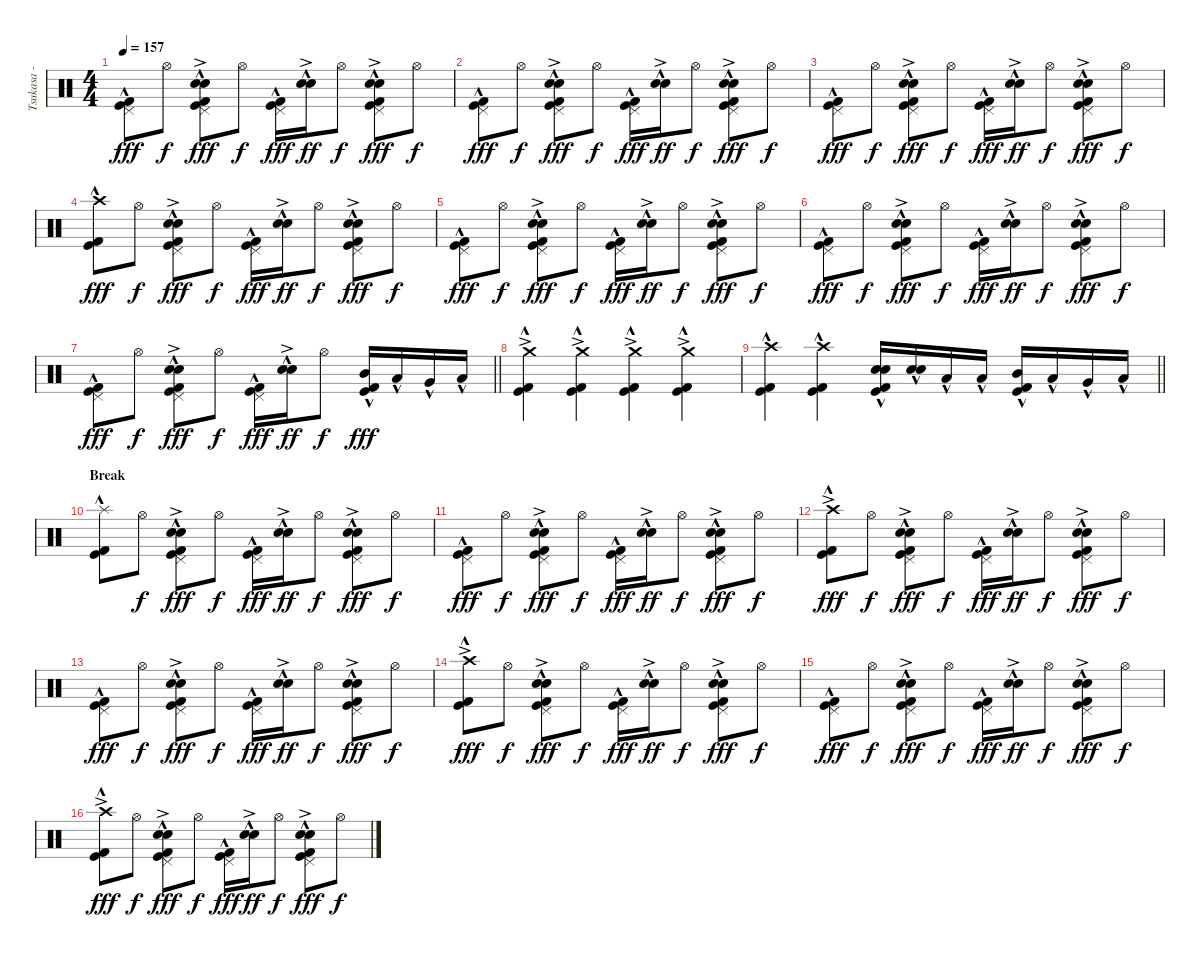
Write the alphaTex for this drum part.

\track ("Tsukasa - Drums" "Tsukasa - ") {instrument percussion}
\staff {score}
\articulation defaults
\ts (4 4)
\tempo 157
\clef neutral
\ks c
("Pedal Hi-Hat (hit)" "Kick (hit) 2"{hac} "Kick (hit)"{hac}).8{dy fff} "Hi-Hat (open)".8{dy f} ("Pedal Hi-Hat (hit)" "Electric Snare (hit)"{hac} "Snare (hit) 2"{ac} "Kick (hit) 2"{hac} "Kick (hit)"{hac}).8{dy fff} "Hi-Hat (open)".8{dy f} ("Pedal Hi-Hat (hit)" "Kick (hit) 2"{hac} "Kick (hit)"{hac}).16{dy fff} ("Electric Snare (hit)"{hac} "Snare (hit) 2"{ac}).16{dy ff} "Hi-Hat (open)".8{dy f} ("Pedal Hi-Hat (hit)" "Electric Snare (hit)"{hac} "Snare (hit) 2"{ac} "Kick (hit) 2"{hac} "Kick (hit)"{hac}).8{dy fff} "Hi-Hat (open)".8{dy f} |
("Pedal Hi-Hat (hit)" "Kick (hit) 2"{hac} "Kick (hit)"{hac}).8{dy fff} "Hi-Hat (open)".8{dy f} ("Pedal Hi-Hat (hit)" "Electric Snare (hit)"{hac} "Snare (hit) 2"{ac} "Kick (hit) 2"{hac} "Kick (hit)"{hac}).8{dy fff} "Hi-Hat (open)".8{dy f} ("Pedal Hi-Hat (hit)" "Kick (hit) 2"{hac} "Kick (hit)"{hac}).16{dy fff} ("Electric Snare (hit)"{hac} "Snare (hit) 2"{ac}).16{dy ff} "Hi-Hat (open)".8{dy f} ("Pedal Hi-Hat (hit)" "Electric Snare (hit)"{hac} "Snare (hit) 2"{ac} "Kick (hit) 2"{hac} "Kick (hit)"{hac}).8{dy fff} "Hi-Hat (open)".8{dy f} |
("Pedal Hi-Hat (hit)" "Kick (hit) 2"{hac} "Kick (hit)"{hac}).8{dy fff} "Hi-Hat (open)".8{dy f} ("Pedal Hi-Hat (hit)" "Electric Snare (hit)"{hac} "Snare (hit) 2"{ac} "Kick (hit) 2"{hac} "Kick (hit)"{hac}).8{dy fff} "Hi-Hat (open)".8{dy f} ("Pedal Hi-Hat (hit)" "Kick (hit) 2"{hac} "Kick (hit)"{hac}).16{dy fff} ("Electric Snare (hit)"{hac} "Snare (hit) 2"{ac}).16{dy ff} "Hi-Hat (open)".8{dy f} ("Pedal Hi-Hat (hit)" "Electric Snare (hit)"{hac} "Snare (hit) 2"{ac} "Kick (hit) 2"{hac} "Kick (hit)"{hac}).8{dy fff} "Hi-Hat (open)".8{dy f} |
("Crash high (hit)"{hac} "Kick (hit) 2"{hac} "Kick (hit)"{hac}).8{dy fff} "Hi-Hat (open)".8{dy f} ("Pedal Hi-Hat (hit)" "Electric Snare (hit)"{hac} "Snare (hit) 2"{ac} "Kick (hit) 2"{hac} "Kick (hit)"{hac}).8{dy fff} "Hi-Hat (open)".8{dy f} ("Pedal Hi-Hat (hit)" "Kick (hit) 2"{hac} "Kick (hit)"{hac}).16{dy fff} ("Electric Snare (hit)"{hac} "Snare (hit) 2"{ac}).16{dy ff} "Hi-Hat (open)".8{dy f} ("Pedal Hi-Hat (hit)" "Electric Snare (hit)"{hac} "Snare (hit) 2"{ac} "Kick (hit) 2"{hac} "Kick (hit)"{hac}).8{dy fff} "Hi-Hat (open)".8{dy f} |
("Pedal Hi-Hat (hit)" "Kick (hit) 2"{hac} "Kick (hit)"{hac}).8{dy fff} "Hi-Hat (open)".8{dy f} ("Pedal Hi-Hat (hit)" "Electric Snare (hit)"{hac} "Snare (hit) 2"{ac} "Kick (hit) 2"{hac} "Kick (hit)"{hac}).8{dy fff} "Hi-Hat (open)".8{dy f} ("Pedal Hi-Hat (hit)" "Kick (hit) 2"{hac} "Kick (hit)"{hac}).16{dy fff} ("Electric Snare (hit)"{hac} "Snare (hit) 2"{ac}).16{dy ff} "Hi-Hat (open)".8{dy f} ("Pedal Hi-Hat (hit)" "Electric Snare (hit)"{hac} "Snare (hit) 2"{ac} "Kick (hit) 2"{hac} "Kick (hit)"{hac}).8{dy fff} "Hi-Hat (open)".8{dy f} |
("Pedal Hi-Hat (hit)" "Kick (hit) 2"{hac} "Kick (hit)"{hac}).8{dy fff} "Hi-Hat (open)".8{dy f} ("Pedal Hi-Hat (hit)" "Electric Snare (hit)"{hac} "Snare (hit) 2"{ac} "Kick (hit) 2"{hac} "Kick (hit)"{hac}).8{dy fff} "Hi-Hat (open)".8{dy f} ("Pedal Hi-Hat (hit)" "Kick (hit) 2"{hac} "Kick (hit)"{hac}).16{dy fff} ("Electric Snare (hit)"{hac} "Snare (hit) 2"{ac}).16{dy ff} "Hi-Hat (open)".8{dy f} ("Pedal Hi-Hat (hit)" "Electric Snare (hit)"{hac} "Snare (hit) 2"{ac} "Kick (hit) 2"{hac} "Kick (hit)"{hac}).8{dy fff} "Hi-Hat (open)".8{dy f} |
\barLineRight lightlight
("Pedal Hi-Hat (hit)" "Kick (hit) 2"{hac} "Kick (hit)"{hac}).8{dy fff} "Hi-Hat (open)".8{dy f} ("Pedal Hi-Hat (hit)" "Electric Snare (hit)"{hac} "Snare (hit) 2"{ac} "Kick (hit) 2"{hac} "Kick (hit)"{hac}).8{dy fff} "Hi-Hat (open)".8{dy f} ("Pedal Hi-Hat (hit)" "Kick (hit) 2"{hac} "Kick (hit)"{hac}).16{dy fff} ("Electric Snare (hit)"{hac} "Snare (hit) 2"{ac}).16{dy ff} "Hi-Hat (open)".8{dy f} ("Mid Tom (hit)"{hac} "Kick (hit) 2"{hac} "Kick (hit)"{hac}).16{dy fff} "Low Tom (hit)"{hac}.16 "Very Low Tom (hit)"{hac}.16 "Low Floor Tom (hit)"{hac}.16 |
("Crash medium (hit)"{ac} "Kick (hit) 2"{hac} "Kick (hit)"{hac}).4 ("Crash medium (hit)"{ac} "Kick (hit) 2"{hac} "Kick (hit)"{hac}).4 ("Crash medium (hit)"{ac} "Kick (hit) 2"{hac} "Kick (hit)"{hac}).4 ("Crash medium (hit)"{ac} "Kick (hit) 2"{hac} "Kick (hit)"{hac}).4 |
\barLineRight lightlight
("Crash high (hit)"{hac} "Kick (hit) 2"{hac} "Kick (hit)"{hac}).4 ("Crash high (hit)"{hac} "Kick (hit) 2"{hac} "Kick (hit)"{hac}).4 ("Electric Snare (hit)"{hac} "Snare (hit) 2"{hac} "Kick (hit) 2"{hac} "Kick (hit)"{hac}).16 ("Electric Snare (hit)"{hac} "Snare (hit) 2"{hac}).16 "Low Tom (hit)"{hac}.16 "Low Tom (hit)"{hac}.16 ("Mid Tom (hit)"{hac} "Kick (hit) 2"{hac} "Kick (hit)"{hac}).16 "Low Tom (hit)"{hac}.16 "Very Low Tom (hit)"{hac}.16 "Low Floor Tom (hit)"{hac}.16 |
\section ("" "Break")
("Splash (hit)"{hac} "Kick (hit) 2"{hac} "Kick (hit)"{hac}).8 "Hi-Hat (open)".8{dy f} ("Pedal Hi-Hat (hit)" "Electric Snare (hit)"{hac} "Snare (hit) 2"{ac} "Kick (hit) 2"{hac} "Kick (hit)"{hac}).8{dy fff} "Hi-Hat (open)".8{dy f} ("Pedal Hi-Hat (hit)" "Kick (hit) 2"{hac} "Kick (hit)"{hac}).16{dy fff} ("Electric Snare (hit)"{hac} "Snare (hit) 2"{ac}).16{dy ff} "Hi-Hat (open)".8{dy f} ("Pedal Hi-Hat (hit)" "Electric Snare (hit)"{hac} "Snare (hit) 2"{ac} "Kick (hit) 2"{hac} "Kick (hit)"{hac}).8{dy fff} "Hi-Hat (open)".8{dy f} |
("Pedal Hi-Hat (hit)" "Kick (hit) 2"{hac} "Kick (hit)"{hac}).8{dy fff} "Hi-Hat (open)".8{dy f} ("Pedal Hi-Hat (hit)" "Electric Snare (hit)"{hac} "Snare (hit) 2"{ac} "Kick (hit) 2"{hac} "Kick (hit)"{hac}).8{dy fff} "Hi-Hat (open)".8{dy f} ("Pedal Hi-Hat (hit)" "Kick (hit) 2"{hac} "Kick (hit)"{hac}).16{dy fff} ("Electric Snare (hit)"{hac} "Snare (hit) 2"{ac}).16{dy ff} "Hi-Hat (open)".8{dy f} ("Pedal Hi-Hat (hit)" "Electric Snare (hit)"{hac} "Snare (hit) 2"{ac} "Kick (hit) 2"{hac} "Kick (hit)"{hac}).8{dy fff} "Hi-Hat (open)".8{dy f} |
("Crash high (hit)"{ac} "Kick (hit) 2"{hac} "Kick (hit)"{hac}).8{dy fff} "Hi-Hat (open)".8{dy f} ("Pedal Hi-Hat (hit)" "Electric Snare (hit)"{hac} "Snare (hit) 2"{ac} "Kick (hit) 2"{hac} "Kick (hit)"{hac}).8{dy fff} "Hi-Hat (open)".8{dy f} ("Pedal Hi-Hat (hit)" "Kick (hit) 2"{hac} "Kick (hit)"{hac}).16{dy fff} ("Electric Snare (hit)"{hac} "Snare (hit) 2"{ac}).16{dy ff} "Hi-Hat (open)".8{dy f} ("Pedal Hi-Hat (hit)" "Electric Snare (hit)"{hac} "Snare (hit) 2"{ac} "Kick (hit) 2"{hac} "Kick (hit)"{hac}).8{dy fff} "Hi-Hat (open)".8{dy f} |
("Pedal Hi-Hat (hit)" "Kick (hit) 2"{hac} "Kick (hit)"{hac}).8{dy fff} "Hi-Hat (open)".8{dy f} ("Pedal Hi-Hat (hit)" "Electric Snare (hit)"{hac} "Snare (hit) 2"{ac} "Kick (hit) 2"{hac} "Kick (hit)"{hac}).8{dy fff} "Hi-Hat (open)".8{dy f} ("Pedal Hi-Hat (hit)" "Kick (hit) 2"{hac} "Kick (hit)"{hac}).16{dy fff} ("Electric Snare (hit)"{hac} "Snare (hit) 2"{ac}).16{dy ff} "Hi-Hat (open)".8{dy f} ("Pedal Hi-Hat (hit)" "Electric Snare (hit)"{hac} "Snare (hit) 2"{ac} "Kick (hit) 2"{hac} "Kick (hit)"{hac}).8{dy fff} "Hi-Hat (open)".8{dy f} |
("Crash high (hit)"{ac} "Kick (hit) 2"{hac} "Kick (hit)"{hac}).8{dy fff} "Hi-Hat (open)".8{dy f} ("Pedal Hi-Hat (hit)" "Electric Snare (hit)"{hac} "Snare (hit) 2"{ac} "Kick (hit) 2"{hac} "Kick (hit)"{hac}).8{dy fff} "Hi-Hat (open)".8{dy f} ("Pedal Hi-Hat (hit)" "Kick (hit) 2"{hac} "Kick (hit)"{hac}).16{dy fff} ("Electric Snare (hit)"{hac} "Snare (hit) 2"{ac}).16{dy ff} "Hi-Hat (open)".8{dy f} ("Pedal Hi-Hat (hit)" "Electric Snare (hit)"{hac} "Snare (hit) 2"{ac} "Kick (hit) 2"{hac} "Kick (hit)"{hac}).8{dy fff} "Hi-Hat (open)".8{dy f} |
("Pedal Hi-Hat (hit)" "Kick (hit) 2"{hac} "Kick (hit)"{hac}).8{dy fff} "Hi-Hat (open)".8{dy f} ("Pedal Hi-Hat (hit)" "Electric Snare (hit)"{hac} "Snare (hit) 2"{ac} "Kick (hit) 2"{hac} "Kick (hit)"{hac}).8{dy fff} "Hi-Hat (open)".8{dy f} ("Pedal Hi-Hat (hit)" "Kick (hit) 2"{hac} "Kick (hit)"{hac}).16{dy fff} ("Electric Snare (hit)"{hac} "Snare (hit) 2"{ac}).16{dy ff} "Hi-Hat (open)".8{dy f} ("Pedal Hi-Hat (hit)" "Electric Snare (hit)"{hac} "Snare (hit) 2"{ac} "Kick (hit) 2"{hac} "Kick (hit)"{hac}).8{dy fff} "Hi-Hat (open)".8{dy f} |
("Crash high (hit)"{ac} "Kick (hit) 2"{hac} "Kick (hit)"{hac}).8{dy fff} "Hi-Hat (open)".8{dy f} ("Pedal Hi-Hat (hit)" "Electric Snare (hit)"{hac} "Snare (hit) 2"{ac} "Kick (hit) 2"{hac} "Kick (hit)"{hac}).8{dy fff} "Hi-Hat (open)".8{dy f} ("Pedal Hi-Hat (hit)" "Kick (hit) 2"{hac} "Kick (hit)"{hac}).16{dy fff} ("Electric Snare (hit)"{hac} "Snare (hit) 2"{ac}).16{dy ff} "Hi-Hat (open)".8{dy f} ("Pedal Hi-Hat (hit)" "Electric Snare (hit)"{hac} "Snare (hit) 2"{ac} "Kick (hit) 2"{hac} "Kick (hit)"{hac}).8{dy fff} "Hi-Hat (open)".8{dy f}
